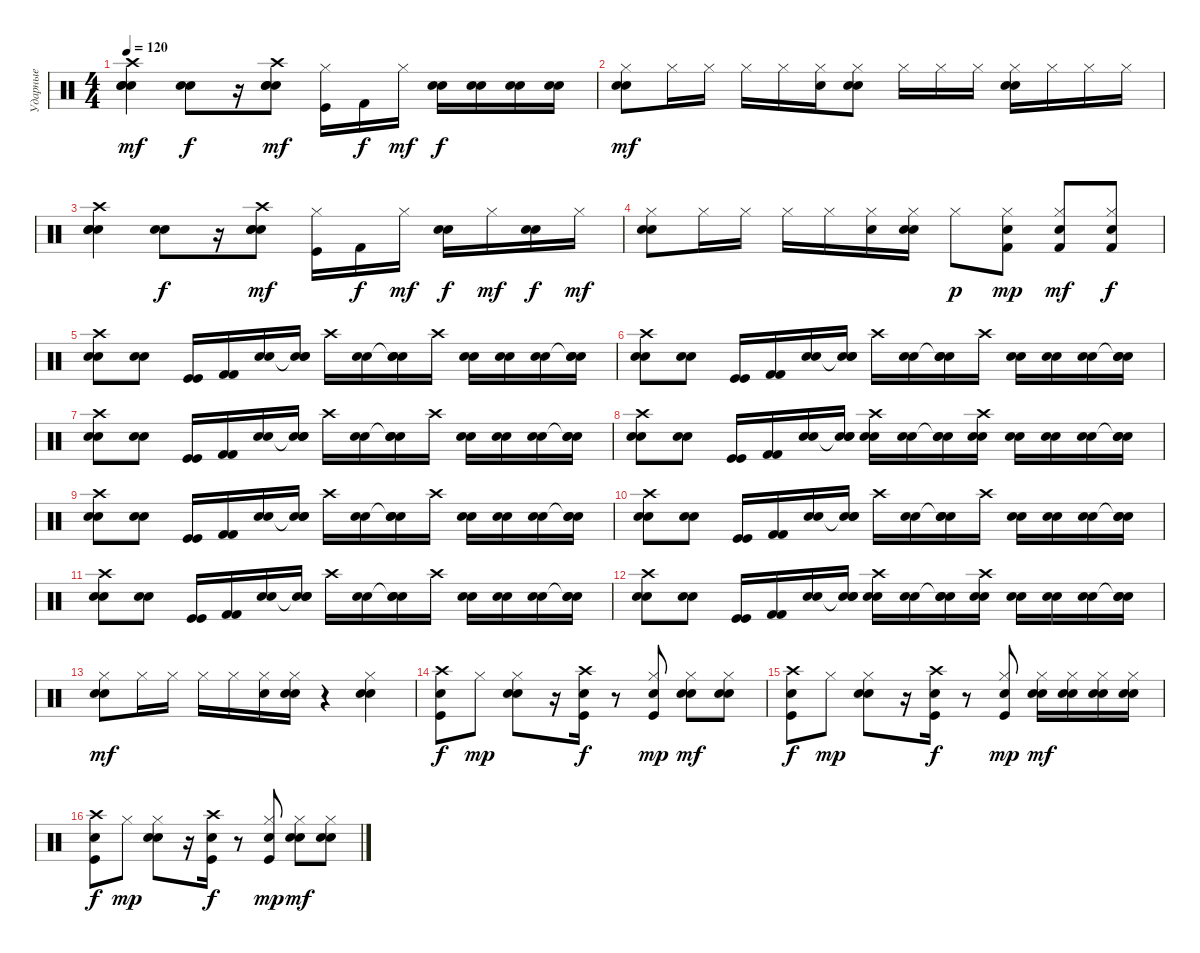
\track ("Ударные" "Ударные") {instrument percussion}
\staff {score}
\articulation defaults
\ts (4 4)
\tempo 120
\clef neutral
\ks c
("Crash high (hit)" "Electric Snare (hit)" "Electric Snare (hit)" "Snare (hit) 2").4{dy mf} ("Electric Snare (hit)" "Electric Snare (hit)").8{dy f} r.16 ("Crash high (hit)" "Electric Snare (hit)" "Electric Snare (hit)" "Snare (hit) 2").8{dy mf} ("Hi-Hat (closed)" "Kick (hit)").16 "Kick (hit) 2".16{dy f} "Hi-Hat (closed)".16{dy mf} ("Electric Snare (hit)" "Electric Snare (hit)").16{dy f} ("Electric Snare (hit)" "Electric Snare (hit)").16 ("Electric Snare (hit)" "Electric Snare (hit)").16 ("Electric Snare (hit)" "Electric Snare (hit)").16 |
("Hi-Hat (closed)" "Electric Snare (hit)" "Electric Snare (hit)").8{dy mf} "Hi-Hat (closed)".16 "Hi-Hat (closed)".16 "Hi-Hat (closed)".16 "Hi-Hat (closed)".16 ("Hi-Hat (closed)" "Electric Snare (hit)").16 ("Hi-Hat (closed)" "Electric Snare (hit)" "Electric Snare (hit)").8 "Hi-Hat (closed)".16 "Hi-Hat (closed)".16 "Hi-Hat (closed)".16 ("Hi-Hat (closed)" "Electric Snare (hit)" "Electric Snare (hit)").16 "Hi-Hat (closed)".16 "Hi-Hat (closed)".16 "Hi-Hat (closed)".16 |
("Crash high (hit)" "Electric Snare (hit)" "Electric Snare (hit)" "Snare (hit) 2").4 ("Electric Snare (hit)" "Electric Snare (hit)").8{dy f} r.16 ("Crash high (hit)" "Electric Snare (hit)" "Electric Snare (hit)" "Snare (hit) 2").8{dy mf} ("Hi-Hat (closed)" "Kick (hit)").16 "Kick (hit) 2".16{dy f} "Hi-Hat (closed)".16{dy mf} ("Electric Snare (hit)" "Electric Snare (hit)").16{dy f} "Hi-Hat (closed)".16{dy mf} ("Electric Snare (hit)" "Electric Snare (hit)").16{dy f} "Hi-Hat (closed)".16{dy mf} |
("Hi-Hat (closed)" "Electric Snare (hit)" "Electric Snare (hit)").8 "Hi-Hat (closed)".16 "Hi-Hat (closed)".16 "Hi-Hat (closed)".16 "Hi-Hat (closed)".16 ("Hi-Hat (closed)" "Electric Snare (hit)").16 ("Hi-Hat (closed)" "Electric Snare (hit)" "Electric Snare (hit)").16 "Hi-Hat (closed)".8{dy p} ("Hi-Hat (closed)" "Electric Snare (hit)" "Kick (hit) 2").8{dy mp} ("Hi-Hat (closed)" "Electric Snare (hit)" "Kick (hit) 2").8{dy mf} ("Hi-Hat (closed)" "Electric Snare (hit)" "Kick (hit) 2").8{dy f} |
("Crash high (hit)" "Electric Snare (hit)" "Electric Snare (hit)").8 ("Electric Snare (hit)" "Electric Snare (hit)").8 ("Kick (hit)" "Kick (hit)").16 ("Kick (hit) 2" "Kick (hit) 2").16 ("Electric Snare (hit)" "Electric Snare (hit)").16 ("Snare (hit)"{t} "Electric Snare (hit)" "Electric Snare (hit)").16 "Crash high (hit)".16 ("Electric Snare (hit)" "Electric Snare (hit)").16 ("Snare (hit)"{t} "Electric Snare (hit)" "Electric Snare (hit)").16 "Crash high (hit)".16 ("Electric Snare (hit)" "Electric Snare (hit)").16 ("Electric Snare (hit)" "Electric Snare (hit)").16 ("Electric Snare (hit)" "Electric Snare (hit)").16 ("Snare (hit)"{t} "Electric Snare (hit)" "Electric Snare (hit)").16 |
("Crash high (hit)" "Electric Snare (hit)" "Electric Snare (hit)").8 ("Electric Snare (hit)" "Electric Snare (hit)").8 ("Kick (hit)" "Kick (hit)").16 ("Kick (hit) 2" "Kick (hit) 2").16 ("Electric Snare (hit)" "Electric Snare (hit)").16 ("Snare (hit)"{t} "Electric Snare (hit)" "Electric Snare (hit)").16 "Crash high (hit)".16 ("Electric Snare (hit)" "Electric Snare (hit)").16 ("Snare (hit)"{t} "Electric Snare (hit)" "Electric Snare (hit)").16 "Crash high (hit)".16 ("Electric Snare (hit)" "Electric Snare (hit)").16 ("Electric Snare (hit)" "Electric Snare (hit)").16 ("Electric Snare (hit)" "Electric Snare (hit)").16 ("Snare (hit)"{t} "Electric Snare (hit)" "Electric Snare (hit)").16 |
("Crash high (hit)" "Electric Snare (hit)" "Electric Snare (hit)").8 ("Electric Snare (hit)" "Electric Snare (hit)").8 ("Kick (hit)" "Kick (hit)").16 ("Kick (hit) 2" "Kick (hit) 2").16 ("Electric Snare (hit)" "Electric Snare (hit)").16 ("Snare (hit)"{t} "Electric Snare (hit)" "Electric Snare (hit)").16 "Crash high (hit)".16 ("Electric Snare (hit)" "Electric Snare (hit)").16 ("Snare (hit)"{t} "Electric Snare (hit)" "Electric Snare (hit)").16 "Crash high (hit)".16 ("Electric Snare (hit)" "Electric Snare (hit)").16 ("Electric Snare (hit)" "Electric Snare (hit)").16 ("Electric Snare (hit)" "Electric Snare (hit)").16 ("Snare (hit)"{t} "Electric Snare (hit)" "Electric Snare (hit)").16 |
("Crash high (hit)" "Electric Snare (hit)" "Electric Snare (hit)").8 ("Electric Snare (hit)" "Electric Snare (hit)").8 ("Kick (hit)" "Kick (hit)").16 ("Kick (hit) 2" "Kick (hit) 2").16 ("Electric Snare (hit)" "Electric Snare (hit)").16 ("Snare (hit)"{t} "Electric Snare (hit)" "Electric Snare (hit)").16 ("Crash high (hit)" "Electric Snare (hit)" "Electric Snare (hit)").16 ("Electric Snare (hit)" "Electric Snare (hit)").16 ("Snare (hit)"{t} "Electric Snare (hit)" "Electric Snare (hit)").16 ("Crash high (hit)" "Electric Snare (hit)" "Electric Snare (hit)").16 ("Electric Snare (hit)" "Electric Snare (hit)").16 ("Electric Snare (hit)" "Electric Snare (hit)").16 ("Electric Snare (hit)" "Electric Snare (hit)").16 ("Snare (hit)"{t} "Electric Snare (hit)" "Electric Snare (hit)").16 |
("Crash high (hit)" "Electric Snare (hit)" "Electric Snare (hit)").8 ("Electric Snare (hit)" "Electric Snare (hit)").8 ("Kick (hit)" "Kick (hit)").16 ("Kick (hit) 2" "Kick (hit) 2").16 ("Electric Snare (hit)" "Electric Snare (hit)").16 ("Snare (hit)"{t} "Electric Snare (hit)" "Electric Snare (hit)").16 "Crash high (hit)".16 ("Electric Snare (hit)" "Electric Snare (hit)").16 ("Snare (hit)"{t} "Electric Snare (hit)" "Electric Snare (hit)").16 "Crash high (hit)".16 ("Electric Snare (hit)" "Electric Snare (hit)").16 ("Electric Snare (hit)" "Electric Snare (hit)").16 ("Electric Snare (hit)" "Electric Snare (hit)").16 ("Snare (hit)"{t} "Electric Snare (hit)" "Electric Snare (hit)").16 |
("Crash high (hit)" "Electric Snare (hit)" "Electric Snare (hit)").8 ("Electric Snare (hit)" "Electric Snare (hit)").8 ("Kick (hit)" "Kick (hit)").16 ("Kick (hit) 2" "Kick (hit) 2").16 ("Electric Snare (hit)" "Electric Snare (hit)").16 ("Snare (hit)"{t} "Electric Snare (hit)" "Electric Snare (hit)").16 "Crash high (hit)".16 ("Electric Snare (hit)" "Electric Snare (hit)").16 ("Snare (hit)"{t} "Electric Snare (hit)" "Electric Snare (hit)").16 "Crash high (hit)".16 ("Electric Snare (hit)" "Electric Snare (hit)").16 ("Electric Snare (hit)" "Electric Snare (hit)").16 ("Electric Snare (hit)" "Electric Snare (hit)").16 ("Snare (hit)"{t} "Electric Snare (hit)" "Electric Snare (hit)").16 |
("Crash high (hit)" "Electric Snare (hit)" "Electric Snare (hit)").8 ("Electric Snare (hit)" "Electric Snare (hit)").8 ("Kick (hit)" "Kick (hit)").16 ("Kick (hit) 2" "Kick (hit) 2").16 ("Electric Snare (hit)" "Electric Snare (hit)").16 ("Snare (hit)"{t} "Electric Snare (hit)" "Electric Snare (hit)").16 "Crash high (hit)".16 ("Electric Snare (hit)" "Electric Snare (hit)").16 ("Snare (hit)"{t} "Electric Snare (hit)" "Electric Snare (hit)").16 "Crash high (hit)".16 ("Electric Snare (hit)" "Electric Snare (hit)").16 ("Electric Snare (hit)" "Electric Snare (hit)").16 ("Electric Snare (hit)" "Electric Snare (hit)").16 ("Snare (hit)"{t} "Electric Snare (hit)" "Electric Snare (hit)").16 |
("Crash high (hit)" "Electric Snare (hit)" "Electric Snare (hit)").8 ("Electric Snare (hit)" "Electric Snare (hit)").8 ("Kick (hit)" "Kick (hit)").16 ("Kick (hit) 2" "Kick (hit) 2").16 ("Electric Snare (hit)" "Electric Snare (hit)").16 ("Snare (hit)"{t} "Electric Snare (hit)" "Electric Snare (hit)").16 ("Crash high (hit)" "Electric Snare (hit)" "Electric Snare (hit)").16 ("Electric Snare (hit)" "Electric Snare (hit)").16 ("Snare (hit)"{t} "Electric Snare (hit)" "Electric Snare (hit)").16 ("Crash high (hit)" "Electric Snare (hit)" "Electric Snare (hit)").16 ("Electric Snare (hit)" "Electric Snare (hit)").16 ("Electric Snare (hit)" "Electric Snare (hit)").16 ("Electric Snare (hit)" "Electric Snare (hit)").16 ("Snare (hit)"{t} "Electric Snare (hit)" "Electric Snare (hit)").16 |
("Hi-Hat (closed)" "Electric Snare (hit)" "Electric Snare (hit)").8{dy mf} "Hi-Hat (closed)".16 "Hi-Hat (closed)".16 "Hi-Hat (closed)".16 "Hi-Hat (closed)".16 ("Hi-Hat (closed)" "Electric Snare (hit)").16 ("Hi-Hat (closed)" "Electric Snare (hit)" "Electric Snare (hit)").16 r.4 ("Hi-Hat (closed)" "Electric Snare (hit)" "Electric Snare (hit)").4 |
("Crash high (hit)" "Kick (hit)" "Snare (hit) 2").8{dy f} "Hi-Hat (closed)".8{dy mp} ("Hi-Hat (closed)" "Electric Snare (hit)" "Electric Snare (hit)").8 r.16 ("Crash high (hit)" "Kick (hit)" "Snare (hit) 2").16{dy f} r.8 ("Hi-Hat (closed)" "Kick (hit)" "Snare (hit) 2").8{dy mp} ("Hi-Hat (closed)" "Electric Snare (hit)" "Electric Snare (hit)").8{dy mf} ("Hi-Hat (closed)" "Electric Snare (hit)" "Electric Snare (hit)").8 |
("Crash high (hit)" "Kick (hit)" "Snare (hit) 2").8{dy f} "Hi-Hat (closed)".8{dy mp} ("Hi-Hat (closed)" "Electric Snare (hit)" "Electric Snare (hit)").8 r.16 ("Crash high (hit)" "Kick (hit)" "Snare (hit) 2").16{dy f} r.8 ("Hi-Hat (closed)" "Kick (hit)" "Snare (hit) 2").8{dy mp} ("Hi-Hat (closed)" "Electric Snare (hit)" "Electric Snare (hit)").16{dy mf} ("Hi-Hat (closed)" "Electric Snare (hit)" "Electric Snare (hit)").16 ("Hi-Hat (closed)" "Electric Snare (hit)" "Electric Snare (hit)").16 ("Hi-Hat (closed)" "Electric Snare (hit)" "Electric Snare (hit)").16 |
("Crash high (hit)" "Kick (hit)" "Snare (hit) 2").8{dy f} "Hi-Hat (closed)".8{dy mp} ("Hi-Hat (closed)" "Electric Snare (hit)" "Electric Snare (hit)").8 r.16 ("Crash high (hit)" "Kick (hit)" "Snare (hit) 2").16{dy f} r.8 ("Hi-Hat (closed)" "Kick (hit)" "Snare (hit) 2").8{dy mp} ("Hi-Hat (closed)" "Electric Snare (hit)" "Electric Snare (hit)").8{dy mf} ("Hi-Hat (closed)" "Electric Snare (hit)" "Electric Snare (hit)").8
